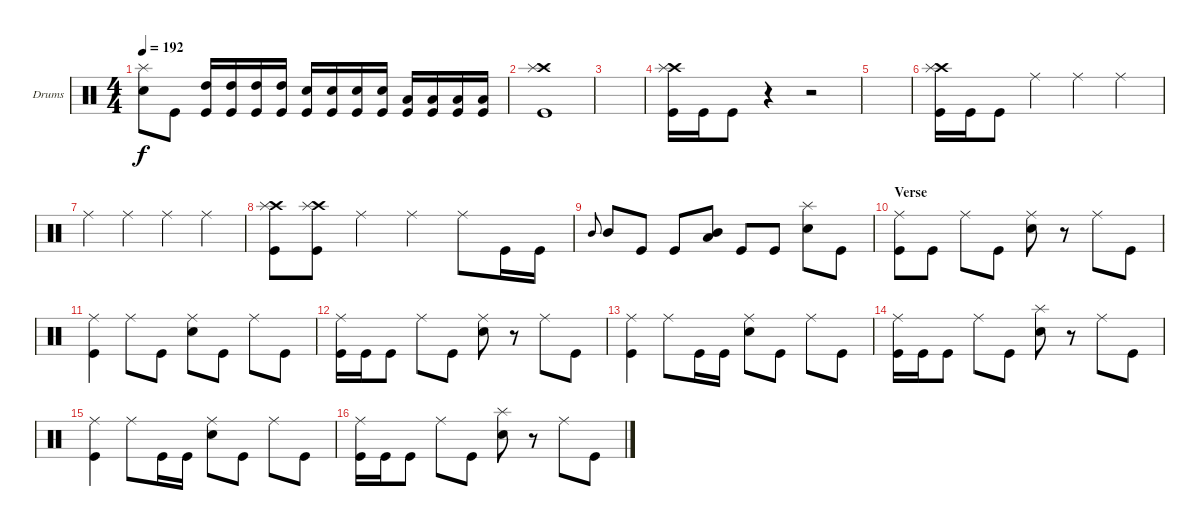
\bracketExtendMode groupsimilarinstruments
\firstSystemTrackNameOrientation horizontal
\otherSystemsTrackNameOrientation horizontal
\track ("Corey Friedlander" "Drums") {instrument percussion}
\staff {score}
\articulation defaults
\ts (4 4)
\tempo 192
\clef neutral
\ks aminor
("Snare (hit) 2" "Splash (hit)").8{dy f} "Kick (hit)".8 ("High Tom (hit)" "Kick (hit)").16 ("High Tom (hit)" "Kick (hit)").16 ("High Tom (hit)" "Kick (hit)").16 ("High Tom (hit)" "Kick (hit)").16 ("Snare (hit) 2" "Kick (hit)").16 ("Snare (hit) 2" "Kick (hit)").16 ("Snare (hit) 2" "Kick (hit)").16 ("Snare (hit) 2" "Kick (hit)").16 ("Low Tom (hit)" "Kick (hit)").16 ("Low Tom (hit)" "Kick (hit)").16 ("Low Tom (hit)" "Kick (hit)").16 ("Low Tom (hit)" "Kick (hit)").16 |
("Kick (hit)" "Crash high (hit)" "Splash (hit)").1 |
|
("Kick (hit)" "Crash high (hit)" "Splash (hit)").16 "Kick (hit)".16 "Kick (hit)".8 r.4 r.2 |
|
("Kick (hit)" "Crash high (hit)" "Splash (hit)").16 "Kick (hit)".16 "Kick (hit)".8 "Ride (middle)".4 "Ride (middle)".4 "Ride (middle)".4 |
"Ride (middle)".4 "Ride (middle)".4 "Ride (middle)".4 "Ride (middle)".4 |
("Kick (hit)" "Crash high (hit)" "Splash (hit)").8 ("Kick (hit)" "Crash high (hit)" "Splash (hit)").8 "Ride (middle)".4 "Ride (middle)".4 "Ride (middle)".8 "Kick (hit)".16 "Kick (hit)".16 |
"Mid Tom (hit)".8{gr onbeat} "Mid Tom (hit)".8 "Kick (hit)".8 "Kick (hit)".8 ("Mid Tom (hit)" "Low Tom (hit)").8 "Kick (hit)".8 "Kick (hit)".8 ("Snare (hit) 2" "Splash (hit)").8 "Kick (hit)".8 |
\section ("" "Verse")
("Kick (hit)" "Ride (middle)").8 "Kick (hit)".8 "Ride (middle)".8 "Kick (hit)".8 ("Snare (hit) 2" "Ride (middle)").8 r.8 "Ride (middle)".8 "Kick (hit)".8 |
("Kick (hit)" "Ride (middle)").4 "Ride (middle)".8 "Kick (hit)".8 ("Snare (hit) 2" "Ride (middle)").8 "Kick (hit)".8 "Ride (middle)".8 "Kick (hit)".8 |
("Kick (hit)" "Ride (middle)").16 "Kick (hit)".16 "Kick (hit)".8 "Ride (middle)".8 "Kick (hit)".8 ("Snare (hit) 2" "Ride (middle)").8 r.8 "Ride (middle)".8 "Kick (hit)".8 |
("Kick (hit)" "Ride (middle)").4 "Ride (middle)".8 "Kick (hit)".16 "Kick (hit)".16 ("Snare (hit) 2" "Ride (middle)").8 "Kick (hit)".8 "Ride (middle)".8 "Kick (hit)".8 |
("Kick (hit)" "Ride (middle)").16 "Kick (hit)".16 "Kick (hit)".8 "Ride (middle)".8 "Kick (hit)".8 ("Snare (hit) 2" "Splash (hit)").8 r.8 "Ride (middle)".8 "Kick (hit)".8 |
("Kick (hit)" "Ride (middle)").4 "Ride (middle)".8 "Kick (hit)".16 "Kick (hit)".16 ("Snare (hit) 2" "Ride (middle)").8 "Kick (hit)".8 "Ride (middle)".8 "Kick (hit)".8 |
("Kick (hit)" "Ride (middle)").16 "Kick (hit)".16 "Kick (hit)".8 "Ride (middle)".8 "Kick (hit)".8 ("Snare (hit) 2" "Splash (hit)").8 r.8 "Ride (middle)".8 "Kick (hit)".8
